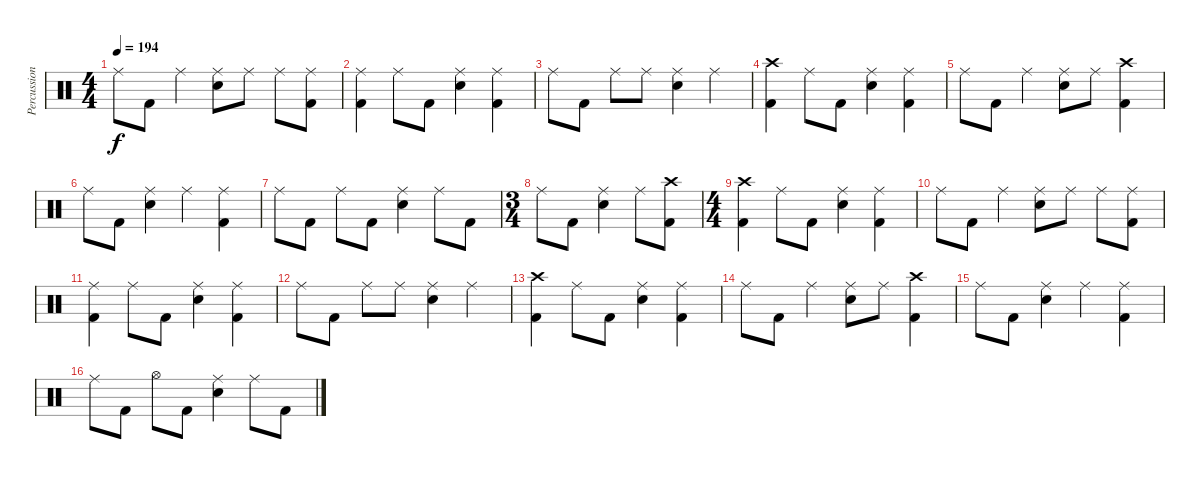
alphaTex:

\track ("Percussions" "Percussion") {instrument percussion}
\staff {score}
\articulation defaults
\ts (4 4)
\tempo 194
\clef neutral
\ks c "Ride (middle)".8{dy f} "Kick (hit) 2".8 "Ride (middle)".4
("Ride (middle)" "Electric Snare (hit)").8 "Ride (middle)".8 "Ride (middle)".8 ("Ride (middle)" "Kick (hit) 2").8 |
("Ride (middle)" "Kick (hit) 2").4 "Ride (middle)".8 "Kick (hit) 2".8 ("Ride (middle)" "Electric Snare (hit)").4 ("Ride (middle)" "Kick (hit) 2").4 |
"Ride (middle)".8 "Kick (hit) 2".8 "Ride (middle)".8 "Ride (middle)".8 ("Ride (middle)" "Electric Snare (hit)").4 "Ride (middle)".4 |
("Crash high (hit)" "Kick (hit) 2").4 "Ride (middle)".8 "Kick (hit) 2".8 ("Ride (middle)" "Electric Snare (hit)").4 ("Ride (middle)" "Kick (hit) 2").4 |
"Ride (middle)".8 "Kick (hit) 2".8 "Ride (middle)".4 ("Ride (middle)" "Electric Snare (hit)").8 "Ride (middle)".8 ("Crash high (hit)" "Kick (hit) 2").4 |
"Ride (middle)".8 "Kick (hit) 2".8 ("Ride (middle)" "Electric Snare (hit)").4 "Ride (middle)".4 ("Ride (middle)" "Kick (hit) 2").4 |
"Ride (middle)".8 "Kick (hit) 2".8 "Ride (middle)".8 "Kick (hit) 2".8 ("Ride (middle)" "Electric Snare (hit)").4 "Ride (middle)".8 "Kick (hit) 2".8 |
\ts (3 4)
"Ride (middle)".8 "Kick (hit) 2".8 ("Ride (middle)" "Electric Snare (hit)").4 "Ride (middle)".8 ("Crash high (hit)" "Kick (hit) 2").8 |
\ts (4 4)
("Crash high (hit)" "Kick (hit) 2").4 "Ride (middle)".8 "Kick (hit) 2".8 ("Ride (middle)" "Electric Snare (hit)").4 ("Ride (middle)" "Kick (hit) 2").4 |
"Ride (middle)".8 "Kick (hit) 2".8 "Ride (middle)".4 ("Ride (middle)" "Electric Snare (hit)").8 "Ride (middle)".8 "Ride (middle)".8 ("Ride (middle)" "Kick (hit) 2").8 |
("Ride (middle)" "Kick (hit) 2").4 "Ride (middle)".8 "Kick (hit) 2".8 ("Ride (middle)" "Electric Snare (hit)").4 ("Ride (middle)" "Kick (hit) 2").4 |
"Ride (middle)".8 "Kick (hit) 2".8 "Ride (middle)".8 "Ride (middle)".8 ("Ride (middle)" "Electric Snare (hit)").4 "Ride (middle)".4 |
("Crash high (hit)" "Kick (hit) 2").4 "Ride (middle)".8 "Kick (hit) 2".8 ("Ride (middle)" "Electric Snare (hit)").4 ("Ride (middle)" "Kick (hit) 2").4 |
"Ride (middle)".8 "Kick (hit) 2".8 "Ride (middle)".4 ("Ride (middle)" "Electric Snare (hit)").8 "Ride (middle)".8 ("Crash high (hit)" "Kick (hit) 2").4 |
"Ride (middle)".8 "Kick (hit) 2".8 ("Ride (middle)" "Electric Snare (hit)").4 "Ride (middle)".4 ("Ride (middle)" "Kick (hit) 2").4 |
"Ride (middle)".8 "Kick (hit) 2".8 "Hi-Hat (open)".8 "Kick (hit) 2".8 ("Ride (middle)" "Electric Snare (hit)").4 "Ride (middle)".8 "Kick (hit) 2".8
